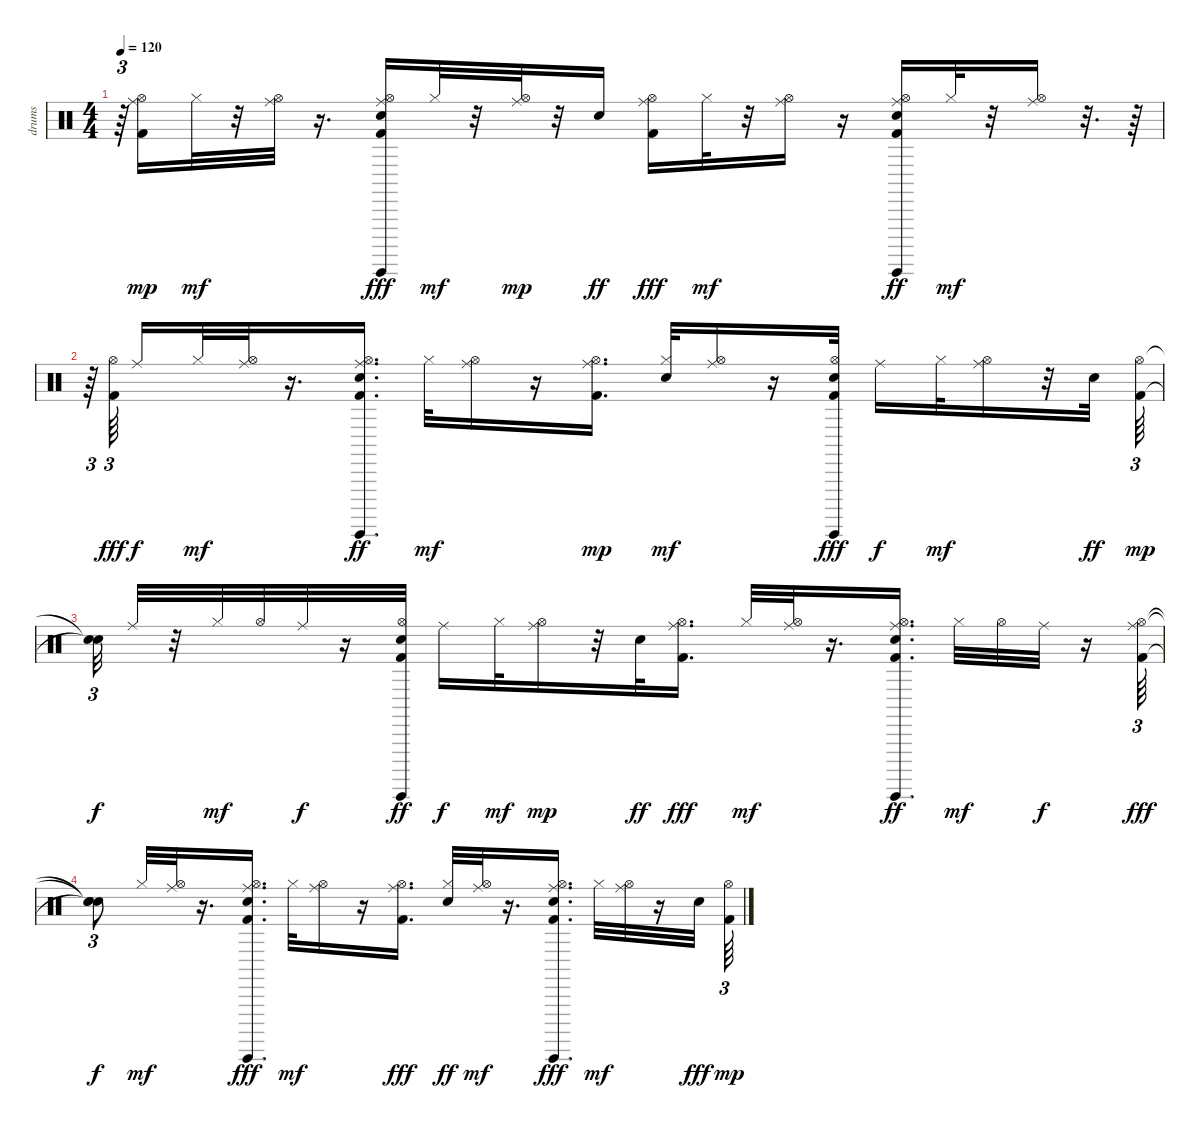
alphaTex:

\track ("drums                               " "drums     ") {instrument percussion}
\staff {score}
\articulation defaults
\ts (4 4)
\tempo 120
\clef neutral
\ks c
r.64{tu (3 2) dy fff} ("Kick (hit) 2" "Ride (middle)" "Hi-Hat (open)").16{dy mp} "Hi-Hat (closed)".32{dy mf} r.32 ("Ride (middle)" "Hi-Hat (open)").32 r.16{d} ("Electric Snare (hit)" "Guiro (hit)" "Hi-Hat (open)" "Kick (hit) 2" "Ride (middle)").16{dy fff} "Hi-Hat (closed)".32{dy mf} r.32 ("Hi-Hat (open)" "Ride (middle)").32{dy mp} r.32 "Electric Snare (hit)".16{dy ff} ("Hi-Hat (open)" "Kick (hit) 2" "Ride (middle)").16{dy fff} "Hi-Hat (closed)".32{dy mf} r.32 ("Ride (middle)" "Hi-Hat (open)").16 r.16 ("Hi-Hat (open)" "Kick (hit) 2" "Guiro (hit)" "Electric Snare (hit)" "Ride (middle)").16{dy ff} "Hi-Hat (closed)".32{dy mf} r.32 ("Hi-Hat (open)" "Ride (middle)").16 r.32{d} r.64 |
r.64{tu (3 2)} ("Hi-Hat (open)" "Kick (hit) 2").64{tu (3 2) dy fff beam splitsecondary} "Ride (middle)".16{dy f} "Hi-Hat (closed)".32{dy mf} ("Hi-Hat (open)" "Ride (middle)").32 r.16{d} ("Hi-Hat (open)" "Kick (hit) 2" "Electric Snare (hit)" "Guiro (hit)" "Ride (middle)").16{d dy ff} "Hi-Hat (closed)".32{dy mf} ("Hi-Hat (open)" "Ride (middle)").16 r.16 ("Ride (middle)" "Kick (hit) 2" "Hi-Hat (open)").16{d dy mp} ("Electric Snare (hit)" "Hi-Hat (closed)").32{dy mf} ("Hi-Hat (open)" "Ride (middle)").16 r.16 ("Electric Snare (hit)" "Guiro (hit)" "Hi-Hat (open)" "Kick (hit) 2").32{dy fff} "Ride (middle)".16{dy f} "Hi-Hat (closed)".32{dy mf} ("Hi-Hat (open)" "Ride (middle)").16 r.32 "Electric Snare (hit)".32{dy ff} ("Kick (hit) 2" "Hi-Hat (open)").64{tu (3 2) dy mp} |
("Snare (hit)"{t} "Snare (hit)"{t}).32{tu (3 2) dy f} "Ride (middle)".32 r.32 "Hi-Hat (closed)".32{dy mf} "Hi-Hat (open)".32 "Ride (middle)".32{dy f} r.16 ("Kick (hit) 2" "Guiro (hit)" "Hi-Hat (open)" "Electric Snare (hit)").32{dy ff} "Ride (middle)".16{dy f} "Hi-Hat (closed)".32{dy mf} ("Hi-Hat (open)" "Ride (middle)").16{dy mp} r.32 "Electric Snare (hit)".32{dy ff} ("Ride (middle)" "Hi-Hat (open)" "Kick (hit) 2").16{d dy fff} "Hi-Hat (closed)".32{dy mf} ("Hi-Hat (open)" "Ride (middle)").32 r.16{d} ("Hi-Hat (open)" "Guiro (hit)" "Kick (hit) 2" "Electric Snare (hit)" "Ride (middle)").16{d dy ff} "Hi-Hat (closed)".32{dy mf} "Hi-Hat (open)".32 "Ride (middle)".32{dy f} r.16 ("Hi-Hat (open)" "Kick (hit) 2" "Ride (middle)").64{tu (3 2) dy fff} |
("Snare (hit)"{t} "Snare (hit)"{t} "Snare (hit)"{t}).8{tu (3 2) dy f} "Hi-Hat (closed)".32{dy mf} ("Ride (middle)" "Hi-Hat (open)").32 r.16{d} ("Hi-Hat (open)" "Guiro (hit)" "Kick (hit) 2" "Electric Snare (hit)" "Ride (middle)").16{d dy fff} "Hi-Hat (closed)".32{dy mf} ("Ride (middle)" "Hi-Hat (open)").16 r.16 ("Ride (middle)" "Hi-Hat (open)" "Kick (hit) 2").16{d dy fff} ("Hi-Hat (closed)" "Electric Snare (hit)").32{dy ff} ("Ride (middle)" "Hi-Hat (open)").32{dy mf} r.16{d} ("Ride (middle)" "Hi-Hat (open)" "Electric Snare (hit)" "Guiro (hit)" "Kick (hit) 2").16{d dy fff} "Hi-Hat (closed)".32{dy mf} ("Ride (middle)" "Hi-Hat (open)").32 r.16 "Electric Snare (hit)".32{dy fff} ("Kick (hit) 2" "Hi-Hat (open)").64{tu (3 2) dy mp}
